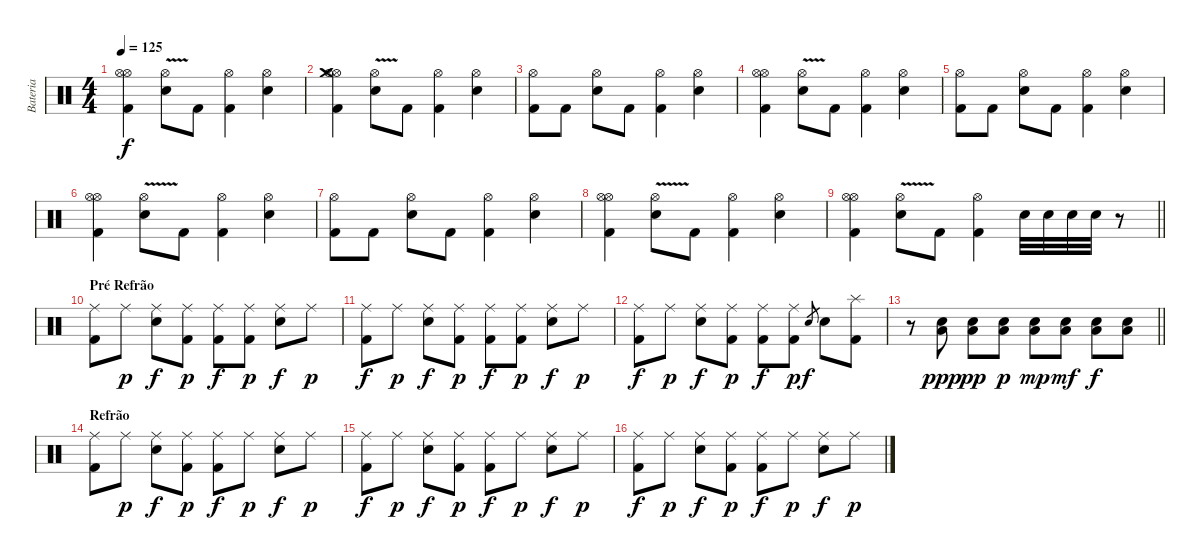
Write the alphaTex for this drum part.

\track ("Bateria" "Bateria") {instrument percussion}
\staff {score}
\articulation defaults
\ts (4 4)
\tempo 125
\clef neutral
\ks c
("Hi-Hat (open)" "Hi-Hat (open)" "Kick (hit) 2").4{dy f} ("Hi-Hat (open)"{v} "Electric Snare (hit)").8 "Kick (hit) 2".8 ("Hi-Hat (open)" "Kick (hit) 2").4 ("Electric Snare (hit)" "Hi-Hat (open)").4 |
("Hi-Hat (open)" "Hi-Hat (open)" "Crash medium (hit)" "Kick (hit) 2").4 ("Hi-Hat (open)"{v} "Electric Snare (hit)").8 "Kick (hit) 2".8 ("Hi-Hat (open)" "Kick (hit) 2").4 ("Electric Snare (hit)" "Hi-Hat (open)").4 |
("Hi-Hat (open)" "Kick (hit) 2").8 "Kick (hit) 2".8 ("Hi-Hat (open)" "Electric Snare (hit)").8 "Kick (hit) 2".8 ("Hi-Hat (open)" "Kick (hit) 2").4 ("Electric Snare (hit)" "Hi-Hat (open)").4 |
("Hi-Hat (open)" "Hi-Hat (open)" "Kick (hit) 2").4 ("Hi-Hat (open)"{v} "Electric Snare (hit)").8 "Kick (hit) 2".8 ("Hi-Hat (open)" "Kick (hit) 2").4 ("Electric Snare (hit)" "Hi-Hat (open)").4 |
("Hi-Hat (open)" "Kick (hit) 2").8 "Kick (hit) 2".8 ("Hi-Hat (open)" "Electric Snare (hit)").8 "Kick (hit) 2".8 ("Hi-Hat (open)" "Kick (hit) 2").4 ("Electric Snare (hit)" "Hi-Hat (open)").4 |
("Hi-Hat (open)" "Hi-Hat (open)" "Kick (hit) 2").4 ("Hi-Hat (open)"{v} "Electric Snare (hit)").8 "Kick (hit) 2".8 ("Hi-Hat (open)" "Kick (hit) 2").4 ("Electric Snare (hit)" "Hi-Hat (open)").4 |
("Hi-Hat (open)" "Kick (hit) 2").8 "Kick (hit) 2".8 ("Hi-Hat (open)" "Electric Snare (hit)").8 "Kick (hit) 2".8 ("Hi-Hat (open)" "Kick (hit) 2").4 ("Electric Snare (hit)" "Hi-Hat (open)").4 |
("Hi-Hat (open)" "Hi-Hat (open)" "Kick (hit) 2").4 ("Hi-Hat (open)"{v} "Electric Snare (hit)").8 "Kick (hit) 2".8 ("Hi-Hat (open)" "Kick (hit) 2").4 ("Electric Snare (hit)" "Hi-Hat (open)").4 |
\barLineRight lightlight
("Hi-Hat (open)" "Hi-Hat (open)" "Kick (hit) 2").4 ("Hi-Hat (open)"{v} "Electric Snare (hit)").8 "Kick (hit) 2".8 ("Hi-Hat (open)" "Kick (hit) 2").4 "Electric Snare (hit)".32 "Electric Snare (hit)".32 "Electric Snare (hit)".32 "Electric Snare (hit)".32 r.8 |
\section ("" "Pré Refrão")
("Ride (middle)" "Kick (hit) 2").8 "Ride (middle)".8{dy p} ("Ride (middle)" "Electric Snare (hit)").8{dy f} ("Ride (middle)" "Kick (hit) 2").8{dy p} ("Ride (middle)" "Kick (hit) 2").8{dy f} ("Ride (middle)" "Kick (hit) 2").8{dy p} ("Ride (middle)" "Electric Snare (hit)").8{dy f} "Ride (middle)".8{dy p} |
("Ride (middle)" "Kick (hit) 2").8{dy f} "Ride (middle)".8{dy p} ("Ride (middle)" "Electric Snare (hit)").8{dy f} ("Ride (middle)" "Kick (hit) 2").8{dy p} ("Ride (middle)" "Kick (hit) 2").8{dy f} ("Ride (middle)" "Kick (hit) 2").8{dy p} ("Ride (middle)" "Electric Snare (hit)").8{dy f} "Ride (middle)".8{dy p} |
("Ride (middle)" "Kick (hit) 2").8{dy f} "Ride (middle)".8{dy p} ("Ride (middle)" "Electric Snare (hit)").8{dy f} ("Ride (middle)" "Kick (hit) 2").8{dy p} ("Ride (middle)" "Kick (hit) 2").8{dy f} ("Ride (middle)" "Kick (hit) 2").8{dy p} "Electric Snare (hit)".8{gr dy f} "Electric Snare (hit)".8 ("Splash (hit)" "Kick (hit) 2").8 |
\barLineRight lightlight
r.8 ("Snare (hit)" "Low Floor Tom (hit)").8{dy ppp} ("Electric Snare (hit)" "Low Floor Tom (hit)").8{dy pp} ("Electric Snare (hit)" "Low Floor Tom (hit)").8{dy p} ("Electric Snare (hit)" "Low Floor Tom (hit)").8{dy mp} ("Electric Snare (hit)" "Low Floor Tom (hit)").8{dy mf} ("Electric Snare (hit)" "Low Floor Tom (hit)").8{dy f} ("Electric Snare (hit)" "Low Floor Tom (hit)").8 |
\section ("" "Refrão")
("Ride (middle)" "Kick (hit) 2").8 "Ride (middle)".8{dy p} ("Ride (middle)" "Electric Snare (hit)").8{dy f} ("Ride (middle)" "Kick (hit) 2").8{dy p} ("Ride (middle)" "Kick (hit) 2").8{dy f} "Ride (middle)".8{dy p} ("Ride (middle)" "Electric Snare (hit)").8{dy f} "Ride (middle)".8{dy p} |
("Ride (middle)" "Kick (hit) 2").8{dy f} "Ride (middle)".8{dy p} ("Ride (middle)" "Electric Snare (hit)").8{dy f} ("Ride (middle)" "Kick (hit) 2").8{dy p} ("Ride (middle)" "Kick (hit) 2").8{dy f} "Ride (middle)".8{dy p} ("Ride (middle)" "Electric Snare (hit)").8{dy f} "Ride (middle)".8{dy p} |
("Ride (middle)" "Kick (hit) 2").8{dy f} "Ride (middle)".8{dy p} ("Ride (middle)" "Electric Snare (hit)").8{dy f} ("Ride (middle)" "Kick (hit) 2").8{dy p} ("Ride (middle)" "Kick (hit) 2").8{dy f} "Ride (middle)".8{dy p} ("Ride (middle)" "Electric Snare (hit)").8{dy f} "Ride (middle)".8{dy p}
